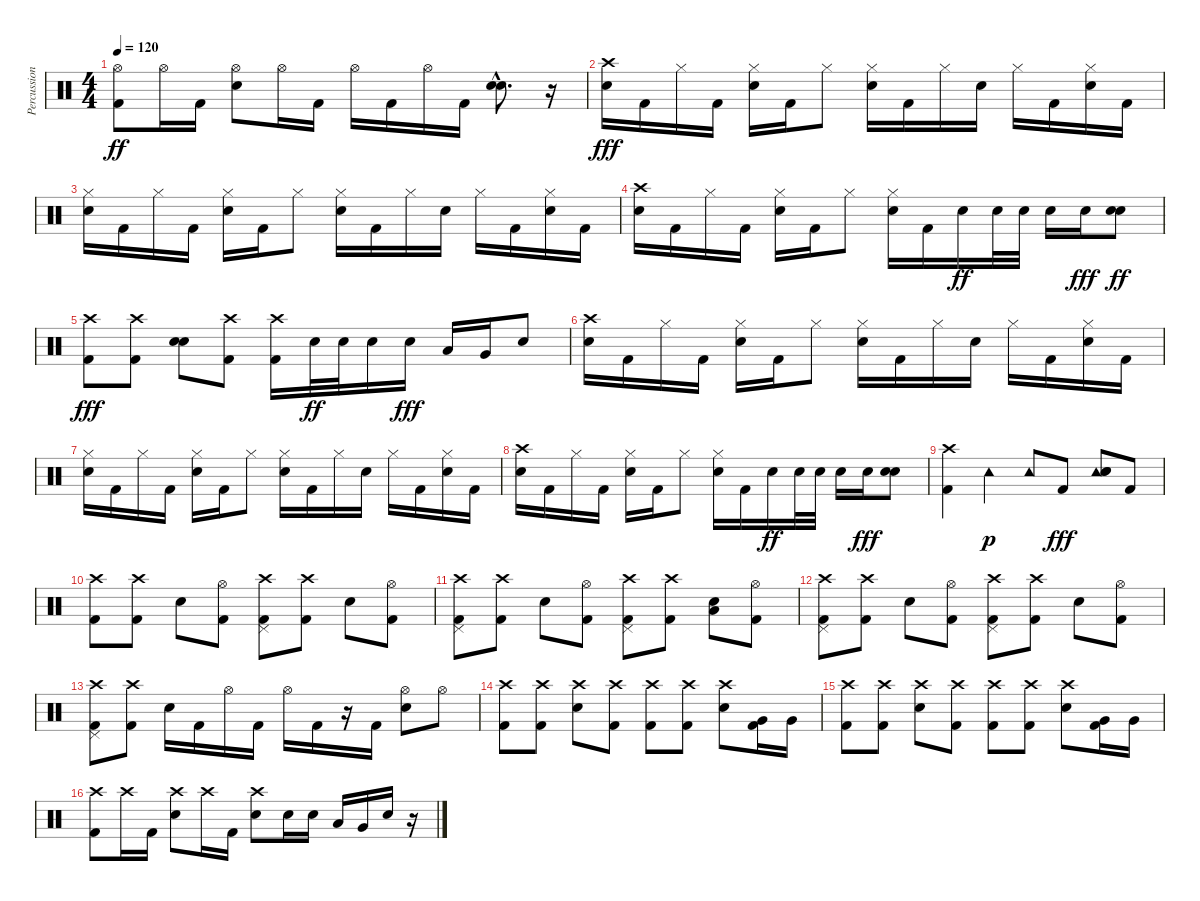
\track ("Percussion" "Percussion") {instrument percussion}
\staff {score}
\articulation defaults
\ts (4 4)
\tempo 120
\clef neutral
\ks c
("Hi-Hat (open)" "Kick (hit) 2").8{dy ff} "Hi-Hat (open)".16 "Kick (hit) 2".16 ("Hi-Hat (open)" "Electric Snare (hit)").8 "Hi-Hat (open)".16 "Kick (hit) 2".16 "Hi-Hat (open)".16 "Kick (hit) 2".16 "Hi-Hat (open)".16 "Kick (hit) 2".16 ("Electric Snare (hit)" "Electric Snare (hit)"{hac}).8{d} r.16 |
("Crash high (hit)" "Electric Snare (hit)").16{dy fff} "Kick (hit) 2".16 "Hi-Hat (closed)".16 "Kick (hit) 2".16 ("Hi-Hat (closed)" "Electric Snare (hit)").16 "Kick (hit) 2".16 "Hi-Hat (closed)".8 ("Hi-Hat (closed)" "Electric Snare (hit)").16 "Kick (hit) 2".16 "Hi-Hat (closed)".16 "Electric Snare (hit)".16 "Hi-Hat (closed)".16 "Kick (hit) 2".16 ("Hi-Hat (closed)" "Electric Snare (hit)").16 "Kick (hit) 2".16 |
("Hi-Hat (closed)" "Electric Snare (hit)").16 "Kick (hit) 2".16 "Hi-Hat (closed)".16 "Kick (hit) 2".16 ("Hi-Hat (closed)" "Electric Snare (hit)").16 "Kick (hit) 2".16 "Hi-Hat (closed)".8 ("Hi-Hat (closed)" "Electric Snare (hit)").16 "Kick (hit) 2".16 "Hi-Hat (closed)".16 "Electric Snare (hit)".16 "Hi-Hat (closed)".16 "Kick (hit) 2".16 ("Hi-Hat (closed)" "Electric Snare (hit)").16 "Kick (hit) 2".16 |
("Crash high (hit)" "Electric Snare (hit)").16 "Kick (hit) 2".16 "Hi-Hat (closed)".16 "Kick (hit) 2".16 ("Hi-Hat (closed)" "Electric Snare (hit)").16 "Kick (hit) 2".16 "Hi-Hat (closed)".8 ("Hi-Hat (closed)" "Electric Snare (hit)").16 "Kick (hit) 2".16 "Electric Snare (hit)".16{dy ff} "Electric Snare (hit)".32 "Electric Snare (hit)".32 "Electric Snare (hit)".16 "Electric Snare (hit)".16{dy fff} ("Electric Snare (hit)" "Electric Snare (hit)").8{dy ff} |
("Crash high (hit)" "Kick (hit) 2").8{dy fff} ("Crash high (hit)" "Kick (hit) 2").8 ("Electric Snare (hit)" "Electric Snare (hit)").8 ("Crash high (hit)" "Kick (hit) 2").8 ("Crash high (hit)" "Kick (hit) 2").16 "Electric Snare (hit)".32{dy ff} "Electric Snare (hit)".32 "Electric Snare (hit)".16 "Electric Snare (hit)".16{dy fff} "Low Tom (hit)".16 "Very Low Tom (hit)".16 "Electric Snare (hit)".8 |
("Crash high (hit)" "Electric Snare (hit)").16 "Kick (hit) 2".16 "Hi-Hat (closed)".16 "Kick (hit) 2".16 ("Hi-Hat (closed)" "Electric Snare (hit)").16 "Kick (hit) 2".16 "Hi-Hat (closed)".8 ("Hi-Hat (closed)" "Electric Snare (hit)").16 "Kick (hit) 2".16 "Hi-Hat (closed)".16 "Electric Snare (hit)".16 "Hi-Hat (closed)".16 "Kick (hit) 2".16 ("Hi-Hat (closed)" "Electric Snare (hit)").16 "Kick (hit) 2".16 |
("Hi-Hat (closed)" "Electric Snare (hit)").16 "Kick (hit) 2".16 "Hi-Hat (closed)".16 "Kick (hit) 2".16 ("Hi-Hat (closed)" "Electric Snare (hit)").16 "Kick (hit) 2".16 "Hi-Hat (closed)".8 ("Hi-Hat (closed)" "Electric Snare (hit)").16 "Kick (hit) 2".16 "Hi-Hat (closed)".16 "Electric Snare (hit)".16 "Hi-Hat (closed)".16 "Kick (hit) 2".16 ("Hi-Hat (closed)" "Electric Snare (hit)").16 "Kick (hit) 2".16 |
("Crash high (hit)" "Electric Snare (hit)").16 "Kick (hit) 2".16 "Hi-Hat (closed)".16 "Kick (hit) 2".16 ("Hi-Hat (closed)" "Electric Snare (hit)").16 "Kick (hit) 2".16 "Hi-Hat (closed)".8 ("Hi-Hat (closed)" "Electric Snare (hit)").16 "Kick (hit) 2".16 "Electric Snare (hit)".16{dy ff} "Electric Snare (hit)".32 "Electric Snare (hit)".32 "Electric Snare (hit)".16 "Electric Snare (hit)".16{dy fff} ("Electric Snare (hit)" "Electric Snare (hit)").8 |
("Crash high (hit)" "Kick (hit) 2").4 "Tambourine (hit)".4{dy p} "Tambourine (hit)".8 "Kick (hit) 2".8{dy fff} ("Tambourine (hit)" "Electric Snare (hit)" "Electric Snare (hit)").8 "Kick (hit) 2".8 |
("Crash high (hit)" "Kick (hit) 2").8 ("Crash high (hit)" "Kick (hit) 2").8 "Electric Snare (hit)".8 ("Hi-Hat (open)" "Kick (hit) 2").8 ("Crash high (hit)" "Pedal Hi-Hat (hit)" "Kick (hit) 2").8 ("Crash high (hit)" "Kick (hit) 2").8 "Electric Snare (hit)".8 ("Hi-Hat (open)" "Kick (hit) 2").8 |
("Crash high (hit)" "Pedal Hi-Hat (hit)" "Kick (hit) 2").8 ("Crash high (hit)" "Kick (hit) 2").8 "Electric Snare (hit)".8 ("Hi-Hat (open)" "Kick (hit) 2").8 ("Crash high (hit)" "Pedal Hi-Hat (hit)" "Kick (hit) 2").8 ("Crash high (hit)" "Kick (hit) 2").8 ("Low Tom (hit)" "Electric Snare (hit)").8 ("Hi-Hat (open)" "Kick (hit) 2").8 |
("Crash high (hit)" "Pedal Hi-Hat (hit)" "Kick (hit) 2").8 ("Crash high (hit)" "Kick (hit) 2").8 "Electric Snare (hit)".8 ("Hi-Hat (open)" "Kick (hit) 2").8 ("Crash high (hit)" "Pedal Hi-Hat (hit)" "Kick (hit) 2").8 ("Crash high (hit)" "Kick (hit) 2").8 "Electric Snare (hit)".8 ("Hi-Hat (open)" "Kick (hit) 2").8 |
("Crash high (hit)" "Pedal Hi-Hat (hit)" "Kick (hit) 2").8 ("Crash high (hit)" "Kick (hit) 2").8 "Electric Snare (hit)".16 "Kick (hit) 2".16 "Hi-Hat (open)".16 "Kick (hit) 2".16 "Hi-Hat (open)".16 "Kick (hit) 2".16 r.16 "Kick (hit) 2".16 ("Hi-Hat (open)" "Electric Snare (hit)").8 "Hi-Hat (open)".8 |
("Crash high (hit)" "Kick (hit) 2").8 ("Crash high (hit)" "Kick (hit) 2").8 ("Crash high (hit)" "Electric Snare (hit)").8 ("Crash high (hit)" "Kick (hit) 2").8 ("Crash high (hit)" "Kick (hit) 2").8 ("Crash high (hit)" "Kick (hit) 2").8 ("Crash high (hit)" "Electric Snare (hit)").8 ("Very Low Tom (hit)" "Kick (hit) 2").16 "Very Low Tom (hit)".16 |
("Crash high (hit)" "Kick (hit) 2").8 ("Crash high (hit)" "Kick (hit) 2").8 ("Crash high (hit)" "Electric Snare (hit)").8 ("Crash high (hit)" "Kick (hit) 2").8 ("Crash high (hit)" "Kick (hit) 2").8 ("Crash high (hit)" "Kick (hit) 2").8 ("Crash high (hit)" "Electric Snare (hit)").8 ("Very Low Tom (hit)" "Kick (hit) 2").16 "Very Low Tom (hit)".16 |
("Crash high (hit)" "Kick (hit) 2").8 "Crash high (hit)".16 "Kick (hit) 2".16 ("Crash high (hit)" "Electric Snare (hit)").8 "Crash high (hit)".16 "Kick (hit) 2".16 ("Crash high (hit)" "Electric Snare (hit)").8 "Electric Snare (hit)".16 "Electric Snare (hit)".16 "Low Tom (hit)".16 "Very Low Tom (hit)".16 "Electric Snare (hit)".16 r.16
